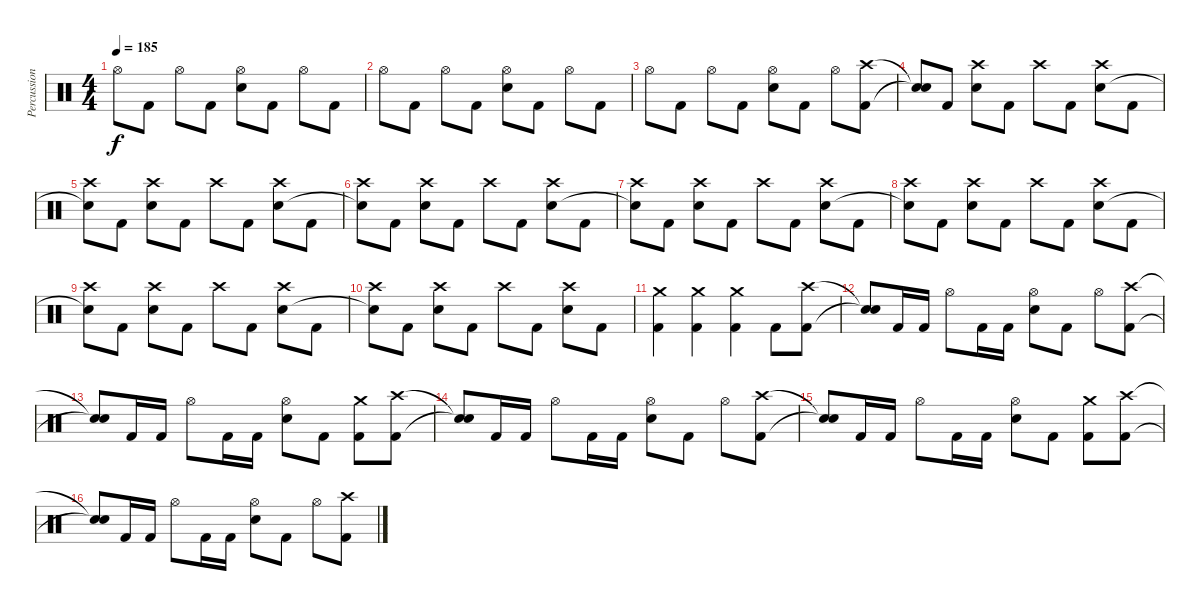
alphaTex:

\track ("Percussion" "Percussion") {instrument percussion}
\staff {score}
\articulation defaults
\ts (4 4)
\tempo 185
\clef neutral
\ks c "Hi-Hat (open)".8{dy f} "Kick (hit) 2".8 "Hi-Hat (open)".8 "Kick (hit) 2".8
("Hi-Hat (open)" "Electric Snare (hit)").8 "Kick (hit) 2".8 "Hi-Hat (open)".8 "Kick (hit) 2".8 |
"Hi-Hat (open)".8 "Kick (hit) 2".8 "Hi-Hat (open)".8 "Kick (hit) 2".8 ("Hi-Hat (open)" "Electric Snare (hit)").8 "Kick (hit) 2".8 "Hi-Hat (open)".8 "Kick (hit) 2".8 |
"Hi-Hat (open)".8 "Kick (hit) 2".8 "Hi-Hat (open)".8 "Kick (hit) 2".8 ("Hi-Hat (open)" "Electric Snare (hit)").8 "Kick (hit) 2".8 "Hi-Hat (open)".8 ("Crash high (hit)" "Kick (hit) 2").8 |
("Snare (hit)"{t} "Snare (hit)"{t}).8 "Kick (hit) 2".8 ("Crash high (hit)" "Electric Snare (hit)").8 "Kick (hit) 2".8 "Crash high (hit)".8 "Kick (hit) 2".8 ("Crash high (hit)" "Electric Snare (hit)").8 "Kick (hit) 2".8 |
("Crash high (hit)" "Snare (hit)"{t}).8 "Kick (hit) 2".8 ("Crash high (hit)" "Electric Snare (hit)").8 "Kick (hit) 2".8 "Crash high (hit)".8 "Kick (hit) 2".8 ("Crash high (hit)" "Electric Snare (hit)").8 "Kick (hit) 2".8 |
("Crash high (hit)" "Snare (hit)"{t}).8 "Kick (hit) 2".8 ("Crash high (hit)" "Electric Snare (hit)").8 "Kick (hit) 2".8 "Crash high (hit)".8 "Kick (hit) 2".8 ("Crash high (hit)" "Electric Snare (hit)").8 "Kick (hit) 2".8 |
("Crash high (hit)" "Snare (hit)"{t}).8 "Kick (hit) 2".8 ("Crash high (hit)" "Electric Snare (hit)").8 "Kick (hit) 2".8 "Crash high (hit)".8 "Kick (hit) 2".8 ("Crash high (hit)" "Electric Snare (hit)").8 "Kick (hit) 2".8 |
("Crash high (hit)" "Snare (hit)"{t}).8 "Kick (hit) 2".8 ("Crash high (hit)" "Electric Snare (hit)").8 "Kick (hit) 2".8 "Crash high (hit)".8 "Kick (hit) 2".8 ("Crash high (hit)" "Electric Snare (hit)").8 "Kick (hit) 2".8 |
("Crash high (hit)" "Snare (hit)"{t}).8 "Kick (hit) 2".8 ("Crash high (hit)" "Electric Snare (hit)").8 "Kick (hit) 2".8 "Crash high (hit)".8 "Kick (hit) 2".8 ("Crash high (hit)" "Electric Snare (hit)").8 "Kick (hit) 2".8 |
("Crash high (hit)" "Snare (hit)"{t}).8 "Kick (hit) 2".8 ("Crash high (hit)" "Electric Snare (hit)").8 "Kick (hit) 2".8 "Crash high (hit)".8 "Kick (hit) 2".8 ("Crash high (hit)" "Electric Snare (hit)").8 "Kick (hit) 2".8 |
("Crash medium (hit)" "Kick (hit) 2").4 ("Crash medium (hit)" "Kick (hit) 2").4 ("Crash medium (hit)" "Kick (hit) 2").4 "Kick (hit) 2".8 ("Crash high (hit)" "Kick (hit) 2").8 |
("Snare (hit)"{t} "Snare (hit)"{t}).8 "Kick (hit) 2".16 "Kick (hit) 2".16 "Hi-Hat (open)".8 "Kick (hit) 2".16 "Kick (hit) 2".16 ("Hi-Hat (open)" "Electric Snare (hit)").8 "Kick (hit) 2".8 "Hi-Hat (open)".8 ("Crash high (hit)" "Kick (hit) 2").8 |
("Snare (hit)"{t} "Snare (hit)"{t}).8 "Kick (hit) 2".16 "Kick (hit) 2".16 "Hi-Hat (open)".8 "Kick (hit) 2".16 "Kick (hit) 2".16 ("Hi-Hat (open)" "Electric Snare (hit)").8 "Kick (hit) 2".8 ("Crash medium (hit)" "Kick (hit) 2").8 ("Crash high (hit)" "Kick (hit) 2").8 |
("Snare (hit)"{t} "Snare (hit)"{t}).8 "Kick (hit) 2".16 "Kick (hit) 2".16 "Hi-Hat (open)".8 "Kick (hit) 2".16 "Kick (hit) 2".16 ("Hi-Hat (open)" "Electric Snare (hit)").8 "Kick (hit) 2".8 "Hi-Hat (open)".8 ("Crash high (hit)" "Kick (hit) 2").8 |
("Snare (hit)"{t} "Snare (hit)"{t}).8 "Kick (hit) 2".16 "Kick (hit) 2".16 "Hi-Hat (open)".8 "Kick (hit) 2".16 "Kick (hit) 2".16 ("Hi-Hat (open)" "Electric Snare (hit)").8 "Kick (hit) 2".8 ("Crash medium (hit)" "Kick (hit) 2").8 ("Crash high (hit)" "Kick (hit) 2").8 |
("Snare (hit)"{t} "Snare (hit)"{t}).8 "Kick (hit) 2".16 "Kick (hit) 2".16 "Hi-Hat (open)".8 "Kick (hit) 2".16 "Kick (hit) 2".16 ("Hi-Hat (open)" "Electric Snare (hit)").8 "Kick (hit) 2".8 "Hi-Hat (open)".8 ("Crash high (hit)" "Kick (hit) 2").8
